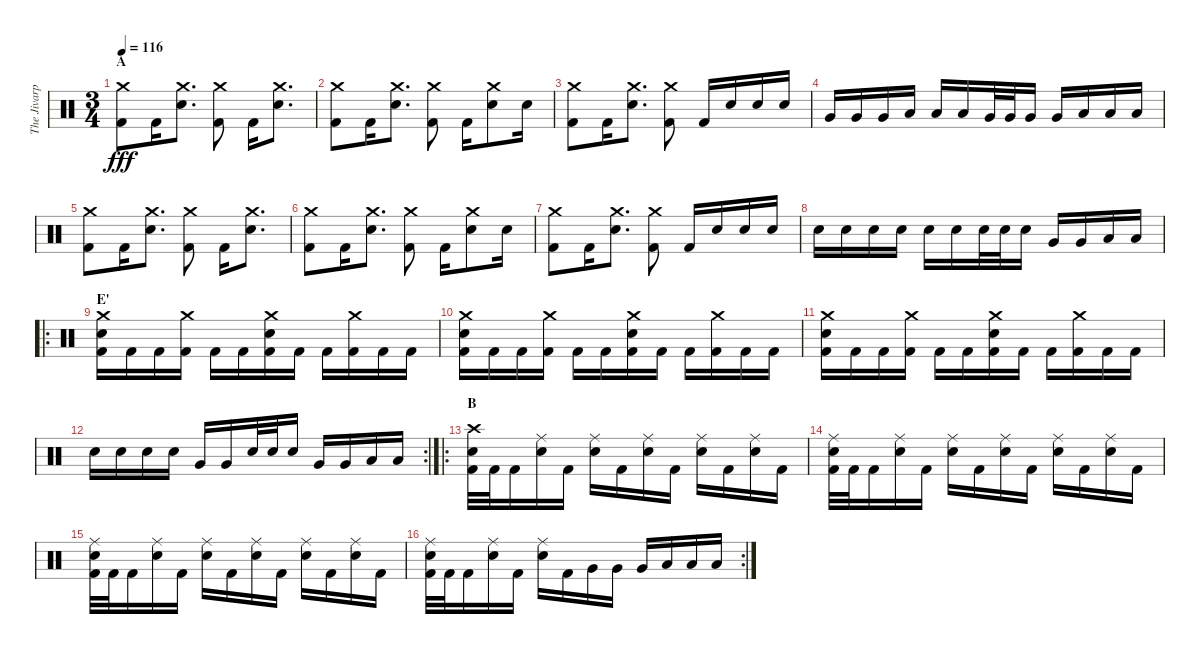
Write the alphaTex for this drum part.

\track ("The Jivarp" "The Jivarp") {instrument percussion}
\staff {score}
\articulation defaults
\ts (3 4)
\section ("" "A")
\tempo 116
\clef neutral
\ks c
("Crash medium (hit)" "Kick (hit) 2").8{dy fff} "Kick (hit) 2".16 ("Crash medium (hit)" "Electric Snare (hit)").8{d} ("Crash medium (hit)" "Kick (hit) 2").8 "Kick (hit) 2".16 ("Crash medium (hit)" "Electric Snare (hit)").8{d} |
("Crash medium (hit)" "Kick (hit) 2").8 "Kick (hit) 2".16 ("Crash medium (hit)" "Electric Snare (hit)").8{d} ("Crash medium (hit)" "Kick (hit) 2").8 "Kick (hit) 2".16 ("Crash medium (hit)" "Electric Snare (hit)").8 "Electric Snare (hit)".16 |
("Crash medium (hit)" "Kick (hit) 2").8 "Kick (hit) 2".16 ("Crash medium (hit)" "Electric Snare (hit)").8{d} ("Crash medium (hit)" "Kick (hit) 2").8 "Kick (hit) 2".16 "Electric Snare (hit)".16 "Electric Snare (hit)".16 "Electric Snare (hit)".16 |
"Very Low Tom (hit)".16 "Very Low Tom (hit)".16 "Very Low Tom (hit)".16 "Low Tom (hit)".16 "Low Tom (hit)".16 "Low Tom (hit)".16 "Very Low Tom (hit)".32 "Very Low Tom (hit)".32 "Very Low Tom (hit)".16 "Very Low Tom (hit)".16 "Low Tom (hit)".16 "Low Tom (hit)".16 "Low Tom (hit)".16 |
("Crash medium (hit)" "Kick (hit) 2").8 "Kick (hit) 2".16 ("Crash medium (hit)" "Electric Snare (hit)").8{d} ("Crash medium (hit)" "Kick (hit) 2").8 "Kick (hit) 2".16 ("Crash medium (hit)" "Electric Snare (hit)").8{d} |
("Crash medium (hit)" "Kick (hit) 2").8 "Kick (hit) 2".16 ("Crash medium (hit)" "Electric Snare (hit)").8{d} ("Crash medium (hit)" "Kick (hit) 2").8 "Kick (hit) 2".16 ("Crash medium (hit)" "Electric Snare (hit)").8 "Electric Snare (hit)".16 |
("Crash medium (hit)" "Kick (hit) 2").8 "Kick (hit) 2".16 ("Crash medium (hit)" "Electric Snare (hit)").8{d} ("Crash medium (hit)" "Kick (hit) 2").8 "Kick (hit) 2".16 "Electric Snare (hit)".16 "Electric Snare (hit)".16 "Electric Snare (hit)".16 |
"Electric Snare (hit)".16 "Electric Snare (hit)".16 "Electric Snare (hit)".16 "Electric Snare (hit)".16 "Electric Snare (hit)".16 "Electric Snare (hit)".16 "Electric Snare (hit)".32 "Electric Snare (hit)".32 "Electric Snare (hit)".16 "Very Low Tom (hit)".16 "Very Low Tom (hit)".16 "Low Tom (hit)".16 "Low Tom (hit)".16 |
\ro
\section ("" "E'")
("Crash medium (hit)" "Electric Snare (hit)" "Kick (hit) 2").16 "Kick (hit) 2".16 "Kick (hit) 2".16 ("Crash medium (hit)" "Kick (hit) 2").16 "Kick (hit) 2".16 "Kick (hit) 2".16 ("Crash medium (hit)" "Electric Snare (hit)" "Kick (hit) 2").16 "Kick (hit) 2".16 "Kick (hit) 2".16 ("Crash medium (hit)" "Kick (hit) 2").16 "Kick (hit) 2".16 "Kick (hit) 2".16 |
("Crash medium (hit)" "Electric Snare (hit)" "Kick (hit) 2").16 "Kick (hit) 2".16 "Kick (hit) 2".16 ("Crash medium (hit)" "Kick (hit) 2").16 "Kick (hit) 2".16 "Kick (hit) 2".16 ("Crash medium (hit)" "Electric Snare (hit)" "Kick (hit) 2").16 "Kick (hit) 2".16 "Kick (hit) 2".16 ("Crash medium (hit)" "Kick (hit) 2").16 "Kick (hit) 2".16 "Kick (hit) 2".16 |
("Crash medium (hit)" "Electric Snare (hit)" "Kick (hit) 2").16 "Kick (hit) 2".16 "Kick (hit) 2".16 ("Crash medium (hit)" "Kick (hit) 2").16 "Kick (hit) 2".16 "Kick (hit) 2".16 ("Crash medium (hit)" "Electric Snare (hit)" "Kick (hit) 2").16 "Kick (hit) 2".16 "Kick (hit) 2".16 ("Crash medium (hit)" "Kick (hit) 2").16 "Kick (hit) 2".16 "Kick (hit) 2".16 |
\rc 2 "Electric Snare (hit)".16 "Electric Snare (hit)".16 "Electric Snare (hit)".16 "Electric Snare (hit)".16 "Very Low Tom (hit)".16 "Very Low Tom (hit)".16 "Electric Snare (hit)".32 "Electric Snare (hit)".32 "Electric Snare (hit)".16 "Very Low Tom (hit)".16 "Very Low Tom (hit)".16 "Low Tom (hit)".16 "Low Tom (hit)".16
|
\ro
\section ("" "B")
("Crash high (hit)" "Electric Snare (hit)" "Kick (hit) 2").32 "Kick (hit) 2".32 "Kick (hit) 2".16 ("Ride (middle)" "Electric Snare (hit)").16 "Kick (hit) 2".16 ("Ride (middle)" "Electric Snare (hit)").16 "Kick (hit) 2".16 ("Ride (middle)" "Electric Snare (hit)").16 "Kick (hit) 2".16 ("Ride (middle)" "Electric Snare (hit)").16 "Kick (hit) 2".16 ("Ride (middle)" "Electric Snare (hit)").16 "Kick (hit) 2".16 |
("Ride (middle)" "Electric Snare (hit)" "Kick (hit) 2").32 "Kick (hit) 2".32 "Kick (hit) 2".16 ("Ride (middle)" "Electric Snare (hit)").16 "Kick (hit) 2".16 ("Ride (middle)" "Electric Snare (hit)").16 "Kick (hit) 2".16 ("Ride (middle)" "Electric Snare (hit)").16 "Kick (hit) 2".16 ("Ride (middle)" "Electric Snare (hit)").16 "Kick (hit) 2".16 ("Ride (middle)" "Electric Snare (hit)").16 "Kick (hit) 2".16 |
("Ride (middle)" "Electric Snare (hit)" "Kick (hit) 2").32 "Kick (hit) 2".32 "Kick (hit) 2".16 ("Ride (middle)" "Electric Snare (hit)").16 "Kick (hit) 2".16 ("Ride (middle)" "Electric Snare (hit)").16 "Kick (hit) 2".16 ("Ride (middle)" "Electric Snare (hit)").16 "Kick (hit) 2".16 ("Ride (middle)" "Electric Snare (hit)").16 "Kick (hit) 2".16 ("Ride (middle)" "Electric Snare (hit)").16 "Kick (hit) 2".16 |
\rc 2
("Ride (middle)" "Electric Snare (hit)" "Kick (hit) 2").32 "Kick (hit) 2".32 "Kick (hit) 2".16 ("Ride (middle)" "Electric Snare (hit)").16 "Kick (hit) 2".16 ("Ride (middle)" "Electric Snare (hit)").16 "Kick (hit) 2".16 "Very Low Tom (hit)".16 "Very Low Tom (hit)".16 "Very Low Tom (hit)".16 "Low Tom (hit)".16 "Low Tom (hit)".16 "Low Tom (hit)".16
